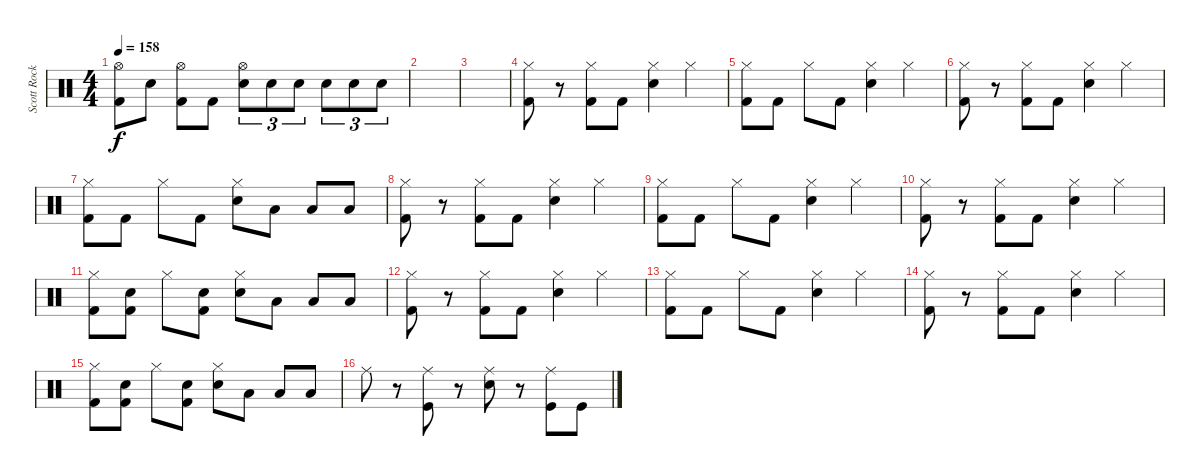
\track ("Scott Rockenfield" "Scott Rock") {instrument percussion}
\staff {score}
\articulation defaults
\ts (4 4)
\tempo 158
\clef neutral
\ks c
("Kick (hit) 2" "Hi-Hat (open)").8{dy f} "Electric Snare (hit)".8 ("Kick (hit) 2" "Hi-Hat (open)").8 "Kick (hit) 2".8 ("Hi-Hat (open)" "Electric Snare (hit)").8{tu (3 2)} "Electric Snare (hit)".8{tu (3 2)} "Electric Snare (hit)".8{tu (3 2)} "Electric Snare (hit)".8{tu (3 2)} "Electric Snare (hit)".8{tu (3 2)} "Electric Snare (hit)".8{tu (3 2)} |
|
|
("Kick (hit) 2" "Hi-Hat (closed)").8 r.8 ("Kick (hit) 2" "Hi-Hat (closed)").8 "Kick (hit) 2".8 ("Hi-Hat (closed)" "Electric Snare (hit)").4 "Hi-Hat (closed)".4 |
("Kick (hit) 2" "Hi-Hat (closed)").8 "Kick (hit) 2".8 "Hi-Hat (closed)".8 "Kick (hit) 2".8 ("Hi-Hat (closed)" "Electric Snare (hit)").4 "Hi-Hat (closed)".4 |
("Kick (hit) 2" "Hi-Hat (closed)").8 r.8 ("Kick (hit) 2" "Hi-Hat (closed)").8 "Kick (hit) 2".8 ("Hi-Hat (closed)" "Electric Snare (hit)").4 "Hi-Hat (closed)".4 |
("Kick (hit) 2" "Hi-Hat (closed)").8 "Kick (hit) 2".8 "Hi-Hat (closed)".8 "Kick (hit) 2".8 ("Hi-Hat (closed)" "Electric Snare (hit)").8 "Low Tom (hit)".8 "Low Tom (hit)".8 "Low Floor Tom (hit)".8 |
("Kick (hit) 2" "Hi-Hat (closed)").8 r.8 ("Kick (hit) 2" "Hi-Hat (closed)").8 "Kick (hit) 2".8 ("Hi-Hat (closed)" "Electric Snare (hit)").4 "Hi-Hat (closed)".4 |
("Kick (hit) 2" "Hi-Hat (closed)").8 "Kick (hit) 2".8 "Hi-Hat (closed)".8 "Kick (hit) 2".8 ("Hi-Hat (closed)" "Electric Snare (hit)").4 "Hi-Hat (closed)".4 |
("Kick (hit) 2" "Hi-Hat (closed)").8 r.8 ("Kick (hit) 2" "Hi-Hat (closed)").8 "Kick (hit) 2".8 ("Hi-Hat (closed)" "Electric Snare (hit)").4 "Hi-Hat (closed)".4 |
("Kick (hit) 2" "Hi-Hat (closed)").8 ("Kick (hit) 2" "Electric Snare (hit)").8 "Hi-Hat (closed)".8 ("Kick (hit) 2" "Electric Snare (hit)").8 ("Hi-Hat (closed)" "Electric Snare (hit)").8 "Low Tom (hit)".8 "Low Tom (hit)".8 "Low Floor Tom (hit)".8 |
("Kick (hit) 2" "Hi-Hat (closed)").8 r.8 ("Kick (hit) 2" "Hi-Hat (closed)").8 "Kick (hit) 2".8 ("Hi-Hat (closed)" "Electric Snare (hit)").4 "Hi-Hat (closed)".4 |
("Kick (hit) 2" "Hi-Hat (closed)").8 "Kick (hit) 2".8 "Hi-Hat (closed)".8 "Kick (hit) 2".8 ("Hi-Hat (closed)" "Electric Snare (hit)").4 "Hi-Hat (closed)".4 |
("Kick (hit) 2" "Hi-Hat (closed)").8 r.8 ("Kick (hit) 2" "Hi-Hat (closed)").8 "Kick (hit) 2".8 ("Hi-Hat (closed)" "Electric Snare (hit)").4 "Hi-Hat (closed)".4 |
("Kick (hit) 2" "Hi-Hat (closed)").8 ("Kick (hit) 2" "Electric Snare (hit)").8 "Hi-Hat (closed)".8 ("Kick (hit) 2" "Electric Snare (hit)").8 ("Hi-Hat (closed)" "Electric Snare (hit)").8 "Low Tom (hit)".8 "Low Tom (hit)".8 "Low Floor Tom (hit)".8 |
"Ride (middle)".8 r.8 ("Kick (hit)" "Ride (middle)").8 r.8 ("Ride (middle)" "Electric Snare (hit)").8 r.8 ("Kick (hit)" "Ride (middle)").8 "Kick (hit)".8
